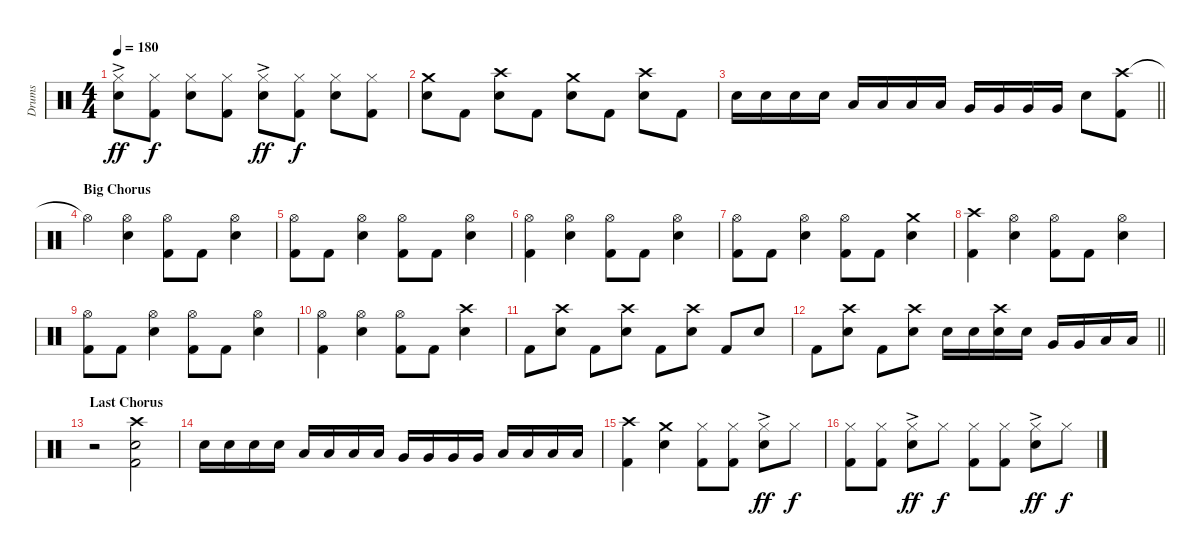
\track ("Drums" "Drums") {instrument percussion}
\staff {score}
\articulation defaults
\ts (4 4)
\tempo 180
\clef neutral
\ks c
("Hi-Hat (closed)"{ac} "Snare (hit) 2").8{dy ff} ("Hi-Hat (closed)" "Kick (hit) 2").8{dy f} ("Hi-Hat (closed)" "Snare (hit) 2").8 ("Hi-Hat (closed)" "Kick (hit) 2").8 ("Hi-Hat (closed)"{ac} "Snare (hit) 2").8{dy ff} ("Hi-Hat (closed)" "Kick (hit) 2").8{dy f} ("Hi-Hat (closed)" "Snare (hit) 2").8 ("Hi-Hat (closed)" "Kick (hit) 2").8 |
("Crash medium (hit)" "Snare (hit) 2").8 "Kick (hit) 2".8 ("Crash high (hit)" "Snare (hit) 2").8 "Kick (hit) 2".8 ("Crash medium (hit)" "Snare (hit) 2").8 "Kick (hit) 2".8 ("Crash high (hit)" "Snare (hit) 2").8 "Kick (hit) 2".8 |
\barLineRight lightlight "Snare (hit) 2".16 "Snare (hit) 2".16 "Snare (hit) 2".16 "Snare (hit) 2".16 "Low Tom (hit)".16 "Low Tom (hit)".16 "Low Tom (hit)".16 "Low Tom (hit)".16 "Very Low Tom (hit)".16 "Very Low Tom (hit)".16 "Very Low Tom (hit)".16 "Very Low Tom (hit)".16 "Snare (hit) 2".8
("Crash high (hit)" "Kick (hit) 2").8 |
\section ("" "Big Chorus")
"Hi-Hat (open)"{t}.4 ("Hi-Hat (open)" "Snare (hit) 2").4 ("Hi-Hat (open)" "Kick (hit) 2").8 "Kick (hit) 2".8 ("Hi-Hat (open)" "Snare (hit) 2").4 |
("Hi-Hat (open)" "Kick (hit) 2").8 "Kick (hit) 2".8 ("Hi-Hat (open)" "Snare (hit) 2").4 ("Hi-Hat (open)" "Kick (hit) 2").8 "Kick (hit) 2".8 ("Hi-Hat (open)" "Snare (hit) 2").4 |
("Hi-Hat (open)" "Kick (hit) 2").4 ("Hi-Hat (open)" "Snare (hit) 2").4 ("Hi-Hat (open)" "Kick (hit) 2").8 "Kick (hit) 2".8 ("Hi-Hat (open)" "Snare (hit) 2").4 |
("Hi-Hat (open)" "Kick (hit) 2").8 "Kick (hit) 2".8 ("Hi-Hat (open)" "Snare (hit) 2").4 ("Hi-Hat (open)" "Kick (hit) 2").8 "Kick (hit) 2".8 ("Crash medium (hit)" "Snare (hit) 2").4 |
("Crash high (hit)" "Kick (hit) 2").4 ("Hi-Hat (open)" "Snare (hit) 2").4 ("Hi-Hat (open)" "Kick (hit) 2").8 "Kick (hit) 2".8 ("Hi-Hat (open)" "Snare (hit) 2").4 |
("Hi-Hat (open)" "Kick (hit) 2").8 "Kick (hit) 2".8 ("Hi-Hat (open)" "Snare (hit) 2").4 ("Hi-Hat (open)" "Kick (hit) 2").8 "Kick (hit) 2".8 ("Hi-Hat (open)" "Snare (hit) 2").4 |
("Hi-Hat (open)" "Kick (hit) 2").4 ("Hi-Hat (open)" "Snare (hit) 2").4 ("Hi-Hat (open)" "Kick (hit) 2").8 "Kick (hit) 2".8 ("Crash high (hit)" "Snare (hit) 2").4 |
"Kick (hit) 2".8 ("Crash high (hit)" "Snare (hit) 2").8 "Kick (hit) 2".8 ("Crash high (hit)" "Snare (hit) 2").8 "Kick (hit) 2".8 ("Crash high (hit)" "Snare (hit) 2").8 "Kick (hit) 2".8 "Snare (hit) 2".8 |
\barLineRight lightlight "Kick (hit) 2".8
("Crash high (hit)" "Snare (hit) 2").8 "Kick (hit) 2".8 ("Crash high (hit)" "Snare (hit) 2").8 "Snare (hit) 2".16 "Snare (hit) 2".16 ("Crash high (hit)" "Snare (hit) 2").16 "Snare (hit) 2".16 "Very Low Tom (hit)".16 "Very Low Tom (hit)".16 "Low Floor Tom (hit)".16 "Low Floor Tom (hit)".16 |
\section ("" "Last Chorus")
r.2 ("Crash high (hit)" "Snare (hit) 2" "Kick (hit) 2").2 |
"Snare (hit) 2".16 "Snare (hit) 2".16 "Snare (hit) 2".16 "Snare (hit) 2".16 "Low Tom (hit)".16 "Low Tom (hit)".16 "Low Tom (hit)".16 "Low Tom (hit)".16 "Very Low Tom (hit)".16 "Very Low Tom (hit)".16 "Very Low Tom (hit)".16 "Very Low Tom (hit)".16 "Low Floor Tom (hit)".16 "Low Floor Tom (hit)".16 "Low Floor Tom (hit)".16 "Low Floor Tom (hit)".16 |
("Crash high (hit)" "Kick (hit) 2").4 ("Crash medium (hit)" "Snare (hit) 2").4 ("Hi-Hat (closed)" "Kick (hit) 2").8 ("Hi-Hat (closed)" "Kick (hit) 2").8 ("Hi-Hat (closed)"{ac} "Snare (hit) 2").8{dy ff} "Hi-Hat (closed)".8{dy f} |
("Hi-Hat (closed)" "Kick (hit) 2").8 ("Hi-Hat (closed)" "Kick (hit) 2").8 ("Hi-Hat (closed)"{ac} "Snare (hit) 2").8{dy ff} "Hi-Hat (closed)".8{dy f} ("Hi-Hat (closed)" "Kick (hit) 2").8 ("Hi-Hat (closed)" "Kick (hit) 2").8 ("Hi-Hat (closed)"{ac} "Snare (hit) 2").8{dy ff} "Hi-Hat (closed)".8{dy f}
